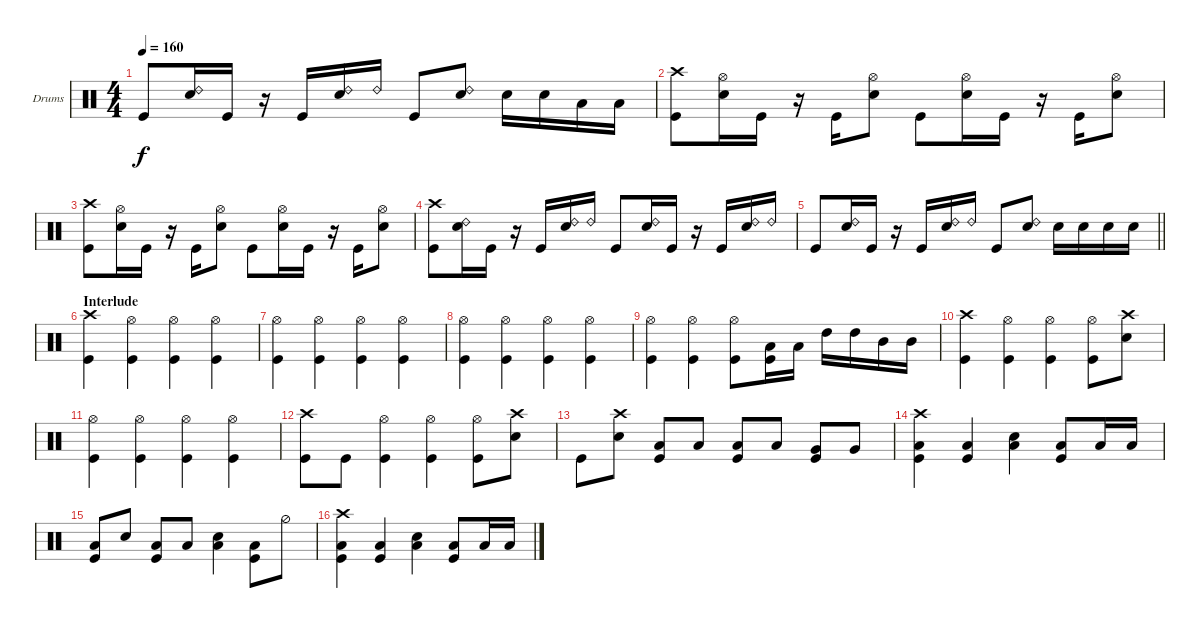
\defaultSystemsLayout 4
\bracketExtendMode groupsimilarinstruments
\firstSystemTrackNameOrientation horizontal
\otherSystemsTrackNameOrientation horizontal
\track ("Drums" "Drums") {instrument percussion}
\staff {score}
\articulation defaults
\ts (4 4)
\tempo 160
\clef neutral
\ks c "Kick (hit)".8{dy f}
("Ride (bell) 2" "Snare (hit) 2").16 "Kick (hit)".16 r.16 "Kick (hit)".16 ("Ride (bell) 2" "Snare (hit) 2").16 "Ride (bell) 2".16 "Kick (hit)".8 ("Ride (bell) 2" "Snare (hit) 2").8 "Snare (hit) 2".16 "Snare (hit) 2".16 "Low Tom (hit)".16 "Low Tom (hit)".16 |
("Kick (hit)" "Crash high (hit)").8 ("Snare (hit) 2" "Hi-Hat (open)").16 "Kick (hit)".16 r.16 "Kick (hit)".16 ("Snare (hit) 2" "Hi-Hat (open)").8 "Kick (hit)".8 ("Snare (hit) 2" "Hi-Hat (open)").16 "Kick (hit)".16 r.16 "Kick (hit)".16 ("Snare (hit) 2" "Hi-Hat (open)").8 |
("Kick (hit)" "Crash high (hit)").8 ("Snare (hit) 2" "Hi-Hat (open)").16 "Kick (hit)".16 r.16 "Kick (hit)".16 ("Snare (hit) 2" "Hi-Hat (open)").8 "Kick (hit)".8 ("Snare (hit) 2" "Hi-Hat (open)").16 "Kick (hit)".16 r.16 "Kick (hit)".16 ("Snare (hit) 2" "Hi-Hat (open)").8 |
("Kick (hit)" "Crash high (hit)").8 ("Ride (bell) 2" "Snare (hit) 2").16 "Kick (hit)".16 r.16 "Kick (hit)".16 ("Ride (bell) 2" "Snare (hit) 2").16 "Ride (bell) 2".16 "Kick (hit)".8 ("Ride (bell) 2" "Snare (hit) 2").16 "Kick (hit)".16 r.16 "Kick (hit)".16 ("Ride (bell) 2" "Snare (hit) 2").16 "Ride (bell) 2".16 |
\barLineRight lightlight "Kick (hit)".8
("Ride (bell) 2" "Snare (hit) 2").16 "Kick (hit)".16 r.16 "Kick (hit)".16 ("Ride (bell) 2" "Snare (hit) 2").16 "Ride (bell) 2".16 "Kick (hit)".8 ("Ride (bell) 2" "Snare (hit) 2").8 "Snare (hit) 2".16 "Snare (hit) 2".16 "Snare (hit) 2".16 "Snare (hit) 2".16 |
\section ("" "Interlude")
("Kick (hit)" "Crash high (hit)").4 ("Hi-Hat (open)" "Kick (hit)").4 ("Hi-Hat (open)" "Kick (hit)").4 ("Hi-Hat (open)" "Kick (hit)").4 |
("Hi-Hat (open)" "Kick (hit)").4 ("Hi-Hat (open)" "Kick (hit)").4 ("Hi-Hat (open)" "Kick (hit)").4 ("Hi-Hat (open)" "Kick (hit)").4 |
("Hi-Hat (open)" "Kick (hit)").4 ("Hi-Hat (open)" "Kick (hit)").4 ("Hi-Hat (open)" "Kick (hit)").4 ("Hi-Hat (open)" "Kick (hit)").4 |
("Hi-Hat (open)" "Kick (hit)").4 ("Hi-Hat (open)" "Kick (hit)").4 ("Hi-Hat (open)" "Kick (hit)").8 ("Low Tom (hit)" "Kick (hit)").16 "Low Tom (hit)".16 "High Tom (hit)".16 "High Tom (hit)".16 "Mid Tom (hit)".16 "Mid Tom (hit)".16 |
("Kick (hit)" "Crash high (hit)").4 ("Hi-Hat (open)" "Kick (hit)").4 ("Hi-Hat (open)" "Kick (hit)").4 ("Hi-Hat (open)" "Kick (hit)").8 ("Snare (hit) 2" "Crash high (hit)").8 |
("Hi-Hat (open)" "Kick (hit)").4 ("Hi-Hat (open)" "Kick (hit)").4 ("Hi-Hat (open)" "Kick (hit)").4 ("Hi-Hat (open)" "Kick (hit)").4 |
("Kick (hit)" "Crash high (hit)").8 "Kick (hit)".8 ("Hi-Hat (open)" "Kick (hit)").4 ("Hi-Hat (open)" "Kick (hit)").4 ("Hi-Hat (open)" "Kick (hit)").8 ("Snare (hit) 2" "Crash high (hit)").8 |
"Kick (hit)".8 ("Snare (hit) 2" "Crash high (hit)").8 ("Low Tom (hit)" "Kick (hit)").8 "Low Tom (hit)".8 ("Low Tom (hit)" "Kick (hit)").8 "Low Tom (hit)".8 ("Kick (hit)" "Very Low Tom (hit)").8 "Very Low Tom (hit)".8 |
("Kick (hit)" "Crash high (hit)" "Low Tom (hit)").4 ("Low Tom (hit)" "Kick (hit)").4 ("Low Tom (hit)" "Snare (hit) 2").4 ("Low Tom (hit)" "Kick (hit)").8 "Low Tom (hit)".16 "Low Tom (hit)".16 |
("Kick (hit)" "Low Tom (hit)").8 "Snare (hit) 2".8 ("Kick (hit)" "Low Tom (hit)").8 "Low Tom (hit)".8 ("Snare (hit) 2" "Low Tom (hit)").4 ("Kick (hit)" "Low Tom (hit)").8 "Hi-Hat (half)".8 |
("Kick (hit)" "Crash high (hit)" "Low Tom (hit)").4 ("Low Tom (hit)" "Kick (hit)").4 ("Low Tom (hit)" "Snare (hit) 2").4 ("Low Tom (hit)" "Kick (hit)").8 "Low Tom (hit)".16 "Low Tom (hit)".16
